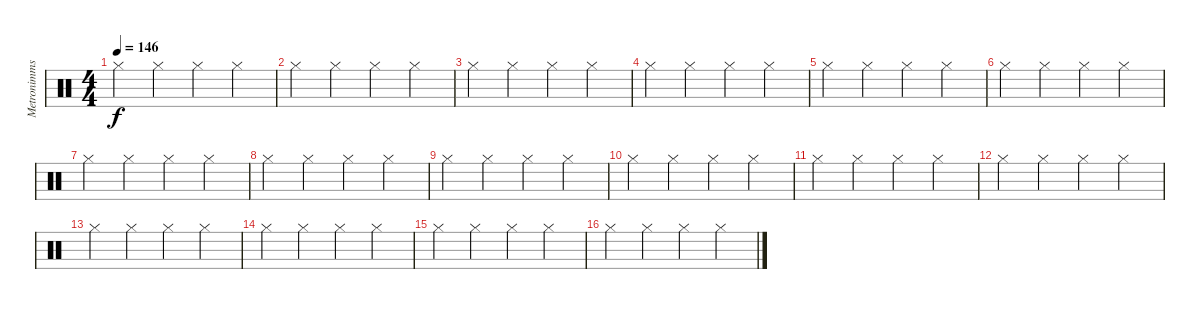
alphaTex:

\track ("Metronimms" "Metronimms") {instrument percussion}
\staff {score}
\articulation defaults
\ts (4 4)
\tempo 146
\clef neutral
\ks c "Hi-Hat (closed)".4{dy f} "Hi-Hat (closed)".4 "Hi-Hat (closed)".4 "Hi-Hat (closed)".4
|
"Hi-Hat (closed)".4 "Hi-Hat (closed)".4 "Hi-Hat (closed)".4 "Hi-Hat (closed)".4 |
"Hi-Hat (closed)".4 "Hi-Hat (closed)".4 "Hi-Hat (closed)".4 "Hi-Hat (closed)".4 |
"Hi-Hat (closed)".4 "Hi-Hat (closed)".4 "Hi-Hat (closed)".4 "Hi-Hat (closed)".4 |
"Hi-Hat (closed)".4 "Hi-Hat (closed)".4 "Hi-Hat (closed)".4 "Hi-Hat (closed)".4 |
"Hi-Hat (closed)".4 "Hi-Hat (closed)".4 "Hi-Hat (closed)".4 "Hi-Hat (closed)".4 |
"Hi-Hat (closed)".4 "Hi-Hat (closed)".4 "Hi-Hat (closed)".4 "Hi-Hat (closed)".4 |
"Hi-Hat (closed)".4 "Hi-Hat (closed)".4 "Hi-Hat (closed)".4 "Hi-Hat (closed)".4 |
"Hi-Hat (closed)".4 "Hi-Hat (closed)".4 "Hi-Hat (closed)".4 "Hi-Hat (closed)".4 |
"Hi-Hat (closed)".4 "Hi-Hat (closed)".4 "Hi-Hat (closed)".4 "Hi-Hat (closed)".4 |
"Hi-Hat (closed)".4 "Hi-Hat (closed)".4 "Hi-Hat (closed)".4 "Hi-Hat (closed)".4 |
"Hi-Hat (closed)".4 "Hi-Hat (closed)".4 "Hi-Hat (closed)".4 "Hi-Hat (closed)".4 |
"Hi-Hat (closed)".4 "Hi-Hat (closed)".4 "Hi-Hat (closed)".4 "Hi-Hat (closed)".4 |
"Hi-Hat (closed)".4 "Hi-Hat (closed)".4 "Hi-Hat (closed)".4 "Hi-Hat (closed)".4 |
"Hi-Hat (closed)".4 "Hi-Hat (closed)".4 "Hi-Hat (closed)".4 "Hi-Hat (closed)".4 |
"Hi-Hat (closed)".4 "Hi-Hat (closed)".4 "Hi-Hat (closed)".4 "Hi-Hat (closed)".4
